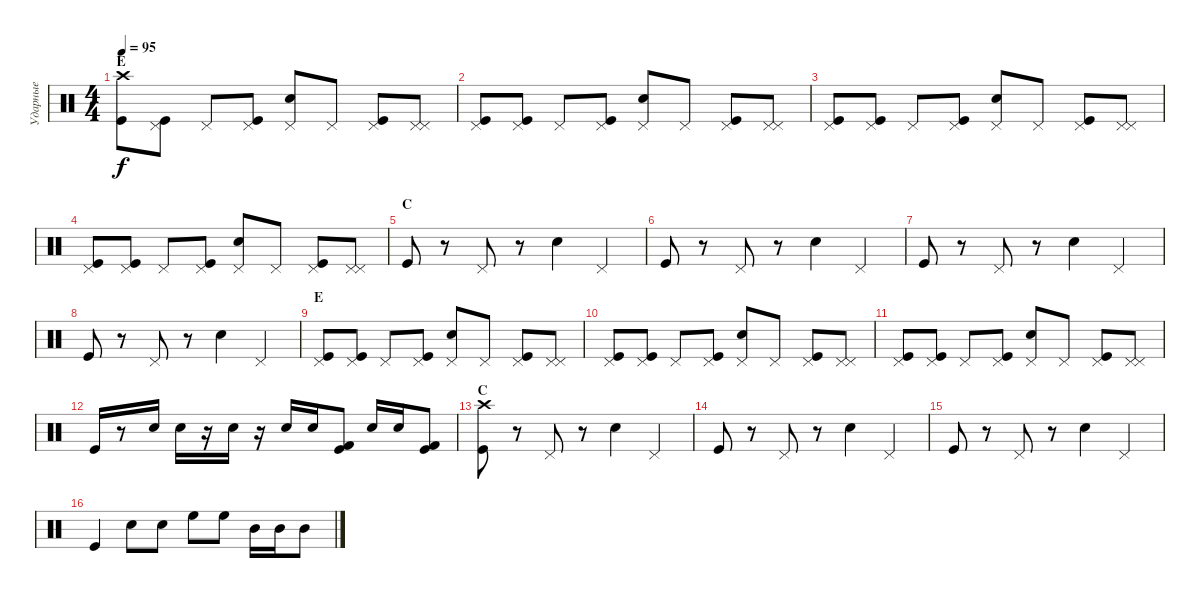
\track ("Ударные" "Ударные") {instrument percussion}
\staff {score}
\articulation defaults
\ts (4 4)
\section ("" "Е")
\tempo 95
\clef neutral
\ks c
("Crash high (hit)" "Kick (hit)").8{dy f} ("Pedal Hi-Hat (hit)" "Kick (hit)").8 "Pedal Hi-Hat (hit)".8 ("Pedal Hi-Hat (hit)" "Kick (hit)").8 ("Pedal Hi-Hat (hit)" "Electric Snare (hit)").8 "Pedal Hi-Hat (hit)".8 ("Pedal Hi-Hat (hit)" "Kick (hit)").8 ("Pedal Hi-Hat (hit)" "Pedal Hi-Hat (hit)").8 |
("Pedal Hi-Hat (hit)" "Kick (hit)").8 ("Pedal Hi-Hat (hit)" "Kick (hit)").8 "Pedal Hi-Hat (hit)".8 ("Pedal Hi-Hat (hit)" "Kick (hit)").8 ("Pedal Hi-Hat (hit)" "Electric Snare (hit)").8 "Pedal Hi-Hat (hit)".8 ("Pedal Hi-Hat (hit)" "Kick (hit)").8 ("Pedal Hi-Hat (hit)" "Pedal Hi-Hat (hit)").8 |
("Pedal Hi-Hat (hit)" "Kick (hit)").8 ("Pedal Hi-Hat (hit)" "Kick (hit)").8 "Pedal Hi-Hat (hit)".8 ("Pedal Hi-Hat (hit)" "Kick (hit)").8 ("Pedal Hi-Hat (hit)" "Electric Snare (hit)").8 "Pedal Hi-Hat (hit)".8 ("Pedal Hi-Hat (hit)" "Kick (hit)").8 ("Pedal Hi-Hat (hit)" "Pedal Hi-Hat (hit)").8 |
("Pedal Hi-Hat (hit)" "Kick (hit)").8 ("Pedal Hi-Hat (hit)" "Kick (hit)").8 "Pedal Hi-Hat (hit)".8 ("Pedal Hi-Hat (hit)" "Kick (hit)").8 ("Pedal Hi-Hat (hit)" "Electric Snare (hit)").8 "Pedal Hi-Hat (hit)".8 ("Pedal Hi-Hat (hit)" "Kick (hit)").8 ("Pedal Hi-Hat (hit)" "Pedal Hi-Hat (hit)").8 |
\section ("" "С")
"Kick (hit)".8 r.8 "Pedal Hi-Hat (hit)".8 r.8 "Electric Snare (hit)".4 "Pedal Hi-Hat (hit)".4 |
"Kick (hit)".8 r.8 "Pedal Hi-Hat (hit)".8 r.8 "Electric Snare (hit)".4 "Pedal Hi-Hat (hit)".4 |
"Kick (hit)".8 r.8 "Pedal Hi-Hat (hit)".8 r.8 "Electric Snare (hit)".4 "Pedal Hi-Hat (hit)".4 |
"Kick (hit)".8 r.8 "Pedal Hi-Hat (hit)".8 r.8 "Electric Snare (hit)".4 "Pedal Hi-Hat (hit)".4 |
\section ("" "Е")
("Pedal Hi-Hat (hit)" "Kick (hit)").8 ("Pedal Hi-Hat (hit)" "Kick (hit)").8 "Pedal Hi-Hat (hit)".8 ("Pedal Hi-Hat (hit)" "Kick (hit)").8 ("Pedal Hi-Hat (hit)" "Electric Snare (hit)").8 "Pedal Hi-Hat (hit)".8 ("Pedal Hi-Hat (hit)" "Kick (hit)").8 ("Pedal Hi-Hat (hit)" "Pedal Hi-Hat (hit)").8 |
("Pedal Hi-Hat (hit)" "Kick (hit)").8 ("Pedal Hi-Hat (hit)" "Kick (hit)").8 "Pedal Hi-Hat (hit)".8 ("Pedal Hi-Hat (hit)" "Kick (hit)").8 ("Pedal Hi-Hat (hit)" "Electric Snare (hit)").8 "Pedal Hi-Hat (hit)".8 ("Pedal Hi-Hat (hit)" "Kick (hit)").8 ("Pedal Hi-Hat (hit)" "Pedal Hi-Hat (hit)").8 |
("Pedal Hi-Hat (hit)" "Kick (hit)").8 ("Pedal Hi-Hat (hit)" "Kick (hit)").8 "Pedal Hi-Hat (hit)".8 ("Pedal Hi-Hat (hit)" "Kick (hit)").8 ("Pedal Hi-Hat (hit)" "Electric Snare (hit)").8 "Pedal Hi-Hat (hit)".8 ("Pedal Hi-Hat (hit)" "Kick (hit)").8 ("Pedal Hi-Hat (hit)" "Pedal Hi-Hat (hit)").8 |
"Kick (hit)".16 r.8 "Snare (hit) 2".16 "Snare (hit) 2".16 r.16 "Snare (hit) 2".16 r.16 "Snare (hit) 2".16 "Snare (hit) 2".16 ("Kick (hit)" "Kick (hit) 2").8 "Snare (hit) 2".16 "Snare (hit) 2".16 ("Kick (hit) 2" "Kick (hit)").8 |
\section ("" "С")
("Crash high (hit)" "Kick (hit)").8 r.8 "Pedal Hi-Hat (hit)".8 r.8 "Electric Snare (hit)".4 "Pedal Hi-Hat (hit)".4 |
"Kick (hit)".8 r.8 "Pedal Hi-Hat (hit)".8 r.8 "Electric Snare (hit)".4 "Pedal Hi-Hat (hit)".4 |
"Kick (hit)".8 r.8 "Pedal Hi-Hat (hit)".8 r.8 "Electric Snare (hit)".4 "Pedal Hi-Hat (hit)".4 |
"Kick (hit)".4 "Snare (hit) 2".8 "Snare (hit) 2".8 "High Floor Tom (hit)".8 "High Floor Tom (hit)".8 "Mid Tom (hit)".16 "Mid Tom (hit)".16 "Mid Tom (hit)".8
